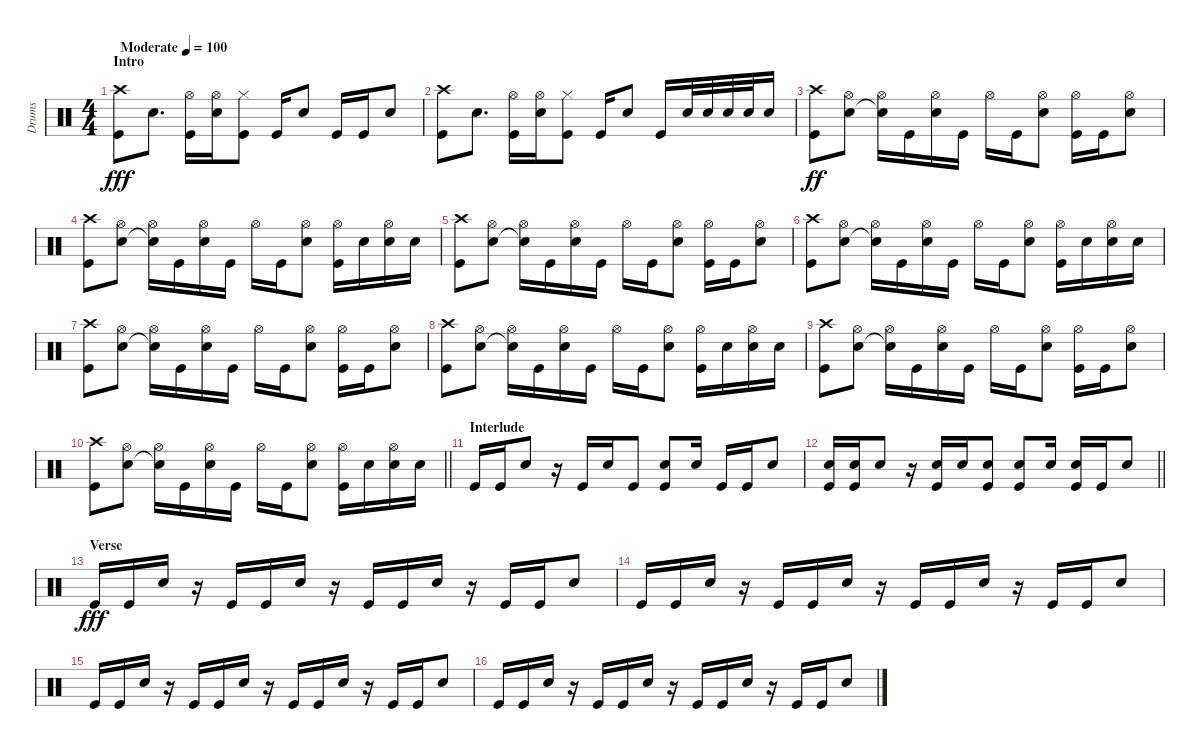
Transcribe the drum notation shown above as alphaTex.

\track ("Drums" "Drums") {instrument percussion}
\staff {score}
\articulation defaults
\ts (4 4)
\section ("" "Intro")
\tempo (100 "Moderate")
\clef neutral
\ks c
("Crash high (hit)" "Kick (hit)").8{dy fff} "Snare (hit) 2".8{d} ("Hi-Hat (open)" "Kick (hit)").16 ("Hi-Hat (open)" "Snare (hit) 2").16 ("Hi-Hat (closed)" "Kick (hit)").8 "Kick (hit)".16 "Snare (hit) 2".8 "Kick (hit)".16 "Kick (hit)".16 "Snare (hit) 2".8 |
("Crash high (hit)" "Kick (hit)").8 "Snare (hit) 2".8{d} ("Hi-Hat (open)" "Kick (hit)").16 ("Hi-Hat (open)" "Snare (hit) 2").16 ("Hi-Hat (closed)" "Kick (hit)").8 "Kick (hit)".16 "Snare (hit) 2".8 "Kick (hit)".16 "Snare (hit) 2".32 "Snare (hit) 2".32 "Snare (hit) 2".32 "Snare (hit) 2".32 "Snare (hit) 2".16 |
("Crash high (hit)" "Kick (hit)").8{dy ff} ("Hi-Hat (open)" "Snare (hit) 2").8 ("Hi-Hat (open)" "Snare (hit)"{t}).16 "Kick (hit)".16 ("Hi-Hat (open)" "Snare (hit) 2").16 "Kick (hit)".16 "Hi-Hat (open)".16 "Kick (hit)".16 ("Hi-Hat (open)" "Snare (hit) 2").8 ("Hi-Hat (open)" "Kick (hit)").16 "Kick (hit)".16 ("Hi-Hat (open)" "Snare (hit) 2").8 |
("Crash high (hit)" "Kick (hit)").8 ("Hi-Hat (open)" "Snare (hit) 2").8 ("Hi-Hat (open)" "Snare (hit)"{t}).16 "Kick (hit)".16 ("Hi-Hat (open)" "Snare (hit) 2").16 "Kick (hit)".16 "Hi-Hat (open)".16 "Kick (hit)".16 ("Hi-Hat (open)" "Snare (hit) 2").8 ("Hi-Hat (open)" "Kick (hit)").16 "Snare (hit) 2".16 ("Hi-Hat (open)" "Snare (hit) 2").16 "Snare (hit) 2".16 |
("Crash high (hit)" "Kick (hit)").8 ("Hi-Hat (open)" "Snare (hit) 2").8 ("Hi-Hat (open)" "Snare (hit)"{t}).16 "Kick (hit)".16 ("Hi-Hat (open)" "Snare (hit) 2").16 "Kick (hit)".16 "Hi-Hat (open)".16 "Kick (hit)".16 ("Hi-Hat (open)" "Snare (hit) 2").8 ("Hi-Hat (open)" "Kick (hit)").16 "Kick (hit)".16 ("Hi-Hat (open)" "Snare (hit) 2").8 |
("Crash high (hit)" "Kick (hit)").8 ("Hi-Hat (open)" "Snare (hit) 2").8 ("Hi-Hat (open)" "Snare (hit)"{t}).16 "Kick (hit)".16 ("Hi-Hat (open)" "Snare (hit) 2").16 "Kick (hit)".16 "Hi-Hat (open)".16 "Kick (hit)".16 ("Hi-Hat (open)" "Snare (hit) 2").8 ("Hi-Hat (open)" "Kick (hit)").16 "Snare (hit) 2".16 ("Hi-Hat (open)" "Snare (hit) 2").16 "Snare (hit) 2".16 |
("Crash high (hit)" "Kick (hit)").8 ("Hi-Hat (open)" "Snare (hit) 2").8 ("Hi-Hat (open)" "Snare (hit)"{t}).16 "Kick (hit)".16 ("Hi-Hat (open)" "Snare (hit) 2").16 "Kick (hit)".16 "Hi-Hat (open)".16 "Kick (hit)".16 ("Hi-Hat (open)" "Snare (hit) 2").8 ("Hi-Hat (open)" "Kick (hit)").16 "Kick (hit)".16 ("Hi-Hat (open)" "Snare (hit) 2").8 |
("Crash high (hit)" "Kick (hit)").8 ("Hi-Hat (open)" "Snare (hit) 2").8 ("Hi-Hat (open)" "Snare (hit)"{t}).16 "Kick (hit)".16 ("Hi-Hat (open)" "Snare (hit) 2").16 "Kick (hit)".16 "Hi-Hat (open)".16 "Kick (hit)".16 ("Hi-Hat (open)" "Snare (hit) 2").8 ("Hi-Hat (open)" "Kick (hit)").16 "Snare (hit) 2".16 ("Hi-Hat (open)" "Snare (hit) 2").16 "Snare (hit) 2".16 |
("Crash high (hit)" "Kick (hit)").8 ("Hi-Hat (open)" "Snare (hit) 2").8 ("Hi-Hat (open)" "Snare (hit)"{t}).16 "Kick (hit)".16 ("Hi-Hat (open)" "Snare (hit) 2").16 "Kick (hit)".16 "Hi-Hat (open)".16 "Kick (hit)".16 ("Hi-Hat (open)" "Snare (hit) 2").8 ("Hi-Hat (open)" "Kick (hit)").16 "Kick (hit)".16 ("Hi-Hat (open)" "Snare (hit) 2").8 |
\barLineRight lightlight
("Crash high (hit)" "Kick (hit)").8 ("Hi-Hat (open)" "Snare (hit) 2").8 ("Hi-Hat (open)" "Snare (hit)"{t}).16 "Kick (hit)".16 ("Hi-Hat (open)" "Snare (hit) 2").16 "Kick (hit)".16 "Hi-Hat (open)".16 "Kick (hit)".16 ("Hi-Hat (open)" "Snare (hit) 2").8 ("Hi-Hat (open)" "Kick (hit)").16 "Snare (hit) 2".16 ("Hi-Hat (open)" "Snare (hit) 2").16 "Snare (hit) 2".16 |
\section ("" "Interlude")
"Kick (hit)".16 "Kick (hit)".16 "Snare (hit) 2".8 r.16 "Kick (hit)".16 "Snare (hit) 2".16 "Kick (hit)".8 ("Snare (hit) 2" "Kick (hit)").8 "Snare (hit) 2".16 "Kick (hit)".16 "Kick (hit)".16 "Snare (hit) 2".8 |
\barLineRight lightlight
("Snare (hit) 2" "Kick (hit)").16 ("Snare (hit) 2" "Kick (hit)").16 "Snare (hit) 2".8 r.16 ("Snare (hit) 2" "Kick (hit)").16 "Snare (hit) 2".16 ("Snare (hit) 2" "Kick (hit)").8 ("Snare (hit) 2" "Kick (hit)").8 "Snare (hit) 2".16 ("Snare (hit) 2" "Kick (hit)").16 "Kick (hit)".16 "Snare (hit) 2".8 |
\section ("" "Verse")
"Kick (hit)".16{dy fff} "Kick (hit)".16 "Snare (hit) 2".16 r.16 "Kick (hit)".16 "Kick (hit)".16 "Snare (hit) 2".16 r.16 "Kick (hit)".16 "Kick (hit)".16 "Snare (hit) 2".16 r.16 "Kick (hit)".16 "Kick (hit)".16 "Snare (hit) 2".8 |
"Kick (hit)".16 "Kick (hit)".16 "Snare (hit) 2".16 r.16 "Kick (hit)".16 "Kick (hit)".16 "Snare (hit) 2".16 r.16 "Kick (hit)".16 "Kick (hit)".16 "Snare (hit) 2".16 r.16 "Kick (hit)".16 "Kick (hit)".16 "Snare (hit) 2".8 |
"Kick (hit)".16 "Kick (hit)".16 "Snare (hit) 2".16 r.16 "Kick (hit)".16 "Kick (hit)".16 "Snare (hit) 2".16 r.16 "Kick (hit)".16 "Kick (hit)".16 "Snare (hit) 2".16 r.16 "Kick (hit)".16 "Kick (hit)".16 "Snare (hit) 2".8 |
"Kick (hit)".16 "Kick (hit)".16 "Snare (hit) 2".16 r.16 "Kick (hit)".16 "Kick (hit)".16 "Snare (hit) 2".16 r.16 "Kick (hit)".16 "Kick (hit)".16 "Snare (hit) 2".16 r.16 "Kick (hit)".16 "Kick (hit)".16 "Snare (hit) 2".8
